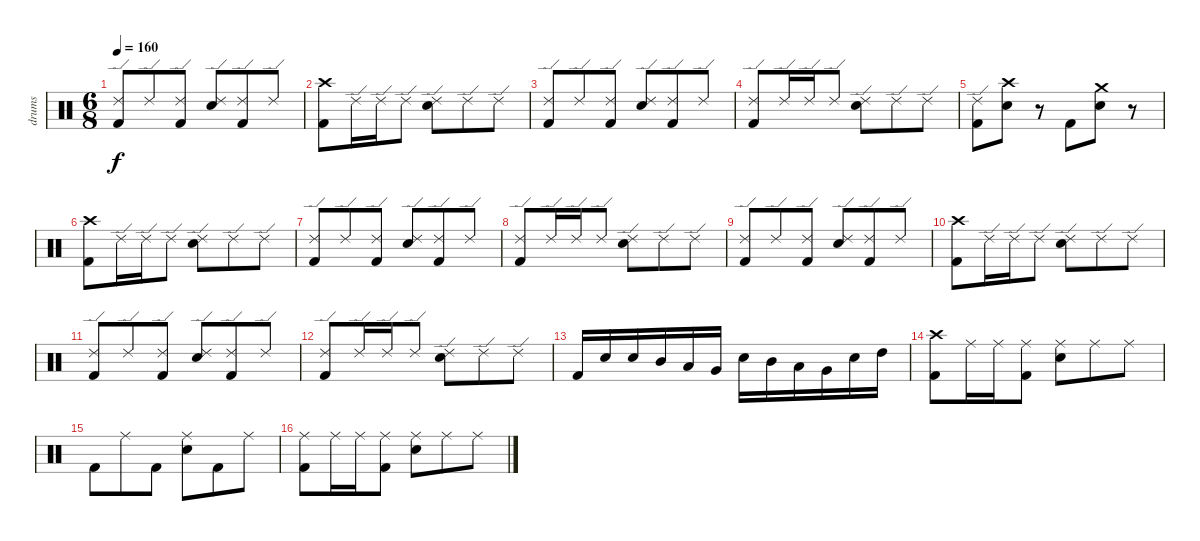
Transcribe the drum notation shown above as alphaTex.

\track ("drums" "drums") {instrument percussion}
\staff {score}
\articulation defaults
\ts (6 8)
\tempo 160
\clef neutral
\ks c
("Kick (hit) 2" "Ride (edge) 2").8{dy f} "Ride (edge) 2".8 ("Kick (hit) 2" "Ride (edge) 2").8 ("Electric Snare (hit)" "Ride (edge) 2").8 ("Kick (hit) 2" "Ride (edge) 2").8 "Ride (edge) 2".8 |
("Kick (hit) 2" "Crash high (hit)").8 "Ride (edge) 2".16 "Ride (edge) 2".16 "Ride (edge) 2".8 ("Electric Snare (hit)" "Ride (edge) 2").8 "Ride (edge) 2".8 "Ride (edge) 2".8 |
("Kick (hit) 2" "Ride (edge) 2").8 "Ride (edge) 2".8 ("Kick (hit) 2" "Ride (edge) 2").8 ("Electric Snare (hit)" "Ride (edge) 2").8 ("Kick (hit) 2" "Ride (edge) 2").8 "Ride (edge) 2".8 |
("Ride (edge) 2" "Kick (hit) 2").8 "Ride (edge) 2".16 "Ride (edge) 2".16 "Ride (edge) 2".8 ("Electric Snare (hit)" "Ride (edge) 2").8 "Ride (edge) 2".8 "Ride (edge) 2".8 |
("Kick (hit) 2" "Ride (edge) 2").8 ("Crash high (hit)" "Electric Snare (hit)").8 r.8 "Kick (hit) 2".8 ("Crash medium (hit)" "Electric Snare (hit)").8 r.8 |
("Kick (hit) 2" "Crash high (hit)").8 "Ride (edge) 2".16 "Ride (edge) 2".16 "Ride (edge) 2".8 ("Electric Snare (hit)" "Ride (edge) 2").8 "Ride (edge) 2".8 "Ride (edge) 2".8 |
("Kick (hit) 2" "Ride (edge) 2").8 "Ride (edge) 2".8 ("Kick (hit) 2" "Ride (edge) 2").8 ("Electric Snare (hit)" "Ride (edge) 2").8 ("Kick (hit) 2" "Ride (edge) 2").8 "Ride (edge) 2".8 |
("Ride (edge) 2" "Kick (hit) 2").8 "Ride (edge) 2".16 "Ride (edge) 2".16 "Ride (edge) 2".8 ("Electric Snare (hit)" "Ride (edge) 2").8 "Ride (edge) 2".8 "Ride (edge) 2".8 |
("Kick (hit) 2" "Ride (edge) 2").8 "Ride (edge) 2".8 ("Kick (hit) 2" "Ride (edge) 2").8 ("Electric Snare (hit)" "Ride (edge) 2").8 ("Kick (hit) 2" "Ride (edge) 2").8 "Ride (edge) 2".8 |
("Kick (hit) 2" "Crash high (hit)").8 "Ride (edge) 2".16 "Ride (edge) 2".16 "Ride (edge) 2".8 ("Electric Snare (hit)" "Ride (edge) 2").8 "Ride (edge) 2".8 "Ride (edge) 2".8 |
("Kick (hit) 2" "Ride (edge) 2").8 "Ride (edge) 2".8 ("Kick (hit) 2" "Ride (edge) 2").8 ("Electric Snare (hit)" "Ride (edge) 2").8 ("Kick (hit) 2" "Ride (edge) 2").8 "Ride (edge) 2".8 |
("Ride (edge) 2" "Kick (hit) 2").8 "Ride (edge) 2".16 "Ride (edge) 2".16 "Ride (edge) 2".8 ("Electric Snare (hit)" "Ride (edge) 2").8 "Ride (edge) 2".8 "Ride (edge) 2".8 |
"Kick (hit) 2".16 "Electric Snare (hit)".16 "Electric Snare (hit)".16 "Mid Tom (hit)".16 "Low Tom (hit)".16 "Very Low Tom (hit)".16 "Electric Snare (hit)".16 "Mid Tom (hit)".16 "Low Tom (hit)".16 "Very Low Tom (hit)".16 "Electric Snare (hit)".16 "High Tom (hit)".16 |
("Kick (hit) 2" "Crash high (hit)").8 "Ride (middle)".16 "Ride (middle)".16 ("Kick (hit) 2" "Ride (middle)").8 ("Electric Snare (hit)" "Ride (middle)").8 "Ride (middle)".8 "Ride (middle)".8 |
"Kick (hit) 2".8 "Ride (middle)".8 "Kick (hit) 2".8 ("Electric Snare (hit)" "Ride (middle)").8 "Kick (hit) 2".8 "Ride (middle)".8 |
("Ride (middle)" "Kick (hit) 2").8 "Ride (middle)".16 "Ride (middle)".16 ("Kick (hit) 2" "Ride (middle)").8 ("Electric Snare (hit)" "Ride (middle)").8 "Ride (middle)".8 "Ride (middle)".8
